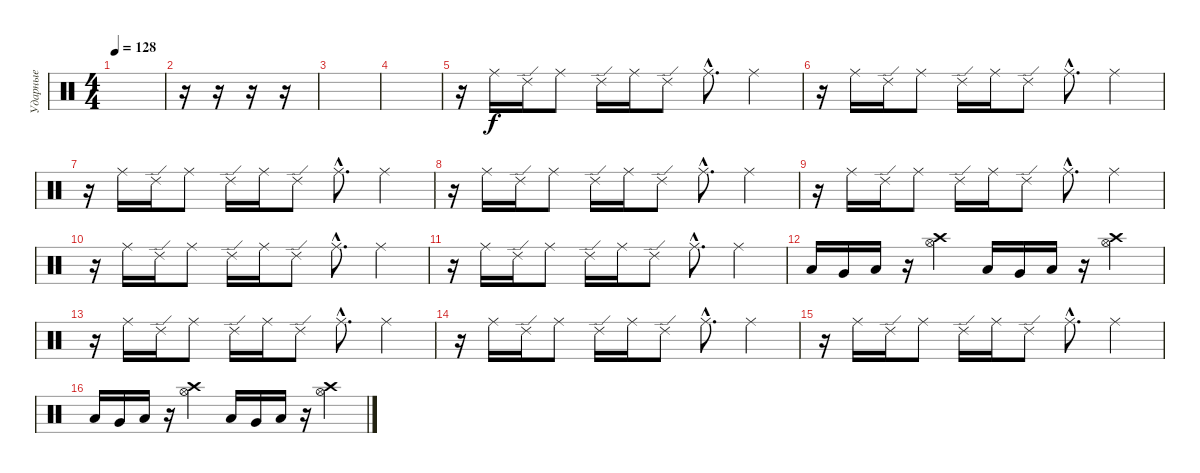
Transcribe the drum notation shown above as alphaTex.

\track ("Ударные" "Ударные") {instrument percussion}
\staff {score}
\articulation defaults
\ts (4 4)
\tempo 128
\clef neutral
\ks c
|
r.16 r.16 r.16 r.16 |
|
|
r.16 "Ride (middle)".16 "Ride (edge) 2".16 "Ride (middle)".8 "Ride (edge) 2".16 "Ride (middle)".16 "Ride (edge) 2".8 "Ride (middle)"{hac}.8{d} "Ride (middle)".4 |
r.16 "Ride (middle)".16 "Ride (edge) 2".16 "Ride (middle)".8 "Ride (edge) 2".16 "Ride (middle)".16 "Ride (edge) 2".8 "Ride (middle)"{hac}.8{d} "Ride (middle)".4 |
r.16 "Ride (middle)".16 "Ride (edge) 2".16 "Ride (middle)".8 "Ride (edge) 2".16 "Ride (middle)".16 "Ride (edge) 2".8 "Ride (middle)"{hac}.8{d} "Ride (middle)".4 |
r.16 "Ride (middle)".16 "Ride (edge) 2".16 "Ride (middle)".8 "Ride (edge) 2".16 "Ride (middle)".16 "Ride (edge) 2".8 "Ride (middle)"{hac}.8{d} "Ride (middle)".4 |
r.16 "Ride (middle)".16 "Ride (edge) 2".16 "Ride (middle)".8 "Ride (edge) 2".16 "Ride (middle)".16 "Ride (edge) 2".8 "Ride (middle)"{hac}.8{d} "Ride (middle)".4 |
r.16 "Ride (middle)".16 "Ride (edge) 2".16 "Ride (middle)".8 "Ride (edge) 2".16 "Ride (middle)".16 "Ride (edge) 2".8 "Ride (middle)"{hac}.8{d} "Ride (middle)".4 |
r.16 "Ride (middle)".16 "Ride (edge) 2".16 "Ride (middle)".8 "Ride (edge) 2".16 "Ride (middle)".16 "Ride (edge) 2".8 "Ride (middle)"{hac}.8{d} "Ride (middle)".4 |
"Low Floor Tom (hit)".16 "Very Low Tom (hit)".16 "Low Floor Tom (hit)".16 r.16 ("Hi-Hat (open)" "Crash high (hit)").4 "Low Floor Tom (hit)".16 "Very Low Tom (hit)".16 "Low Floor Tom (hit)".16 r.16 ("Hi-Hat (open)" "Crash high (hit)").4 |
r.16 "Ride (middle)".16 "Ride (edge) 2".16 "Ride (middle)".8 "Ride (edge) 2".16 "Ride (middle)".16 "Ride (edge) 2".8 "Ride (middle)"{hac}.8{d} "Ride (middle)".4 |
r.16 "Ride (middle)".16 "Ride (edge) 2".16 "Ride (middle)".8 "Ride (edge) 2".16 "Ride (middle)".16 "Ride (edge) 2".8 "Ride (middle)"{hac}.8{d} "Ride (middle)".4 |
r.16 "Ride (middle)".16 "Ride (edge) 2".16 "Ride (middle)".8 "Ride (edge) 2".16 "Ride (middle)".16 "Ride (edge) 2".8 "Ride (middle)"{hac}.8{d} "Ride (middle)".4 |
"Low Floor Tom (hit)".16 "Very Low Tom (hit)".16 "Low Floor Tom (hit)".16 r.16 ("Hi-Hat (open)" "Crash high (hit)").4 "Low Floor Tom (hit)".16 "Very Low Tom (hit)".16 "Low Floor Tom (hit)".16 r.16 ("Hi-Hat (open)" "Crash high (hit)").4
